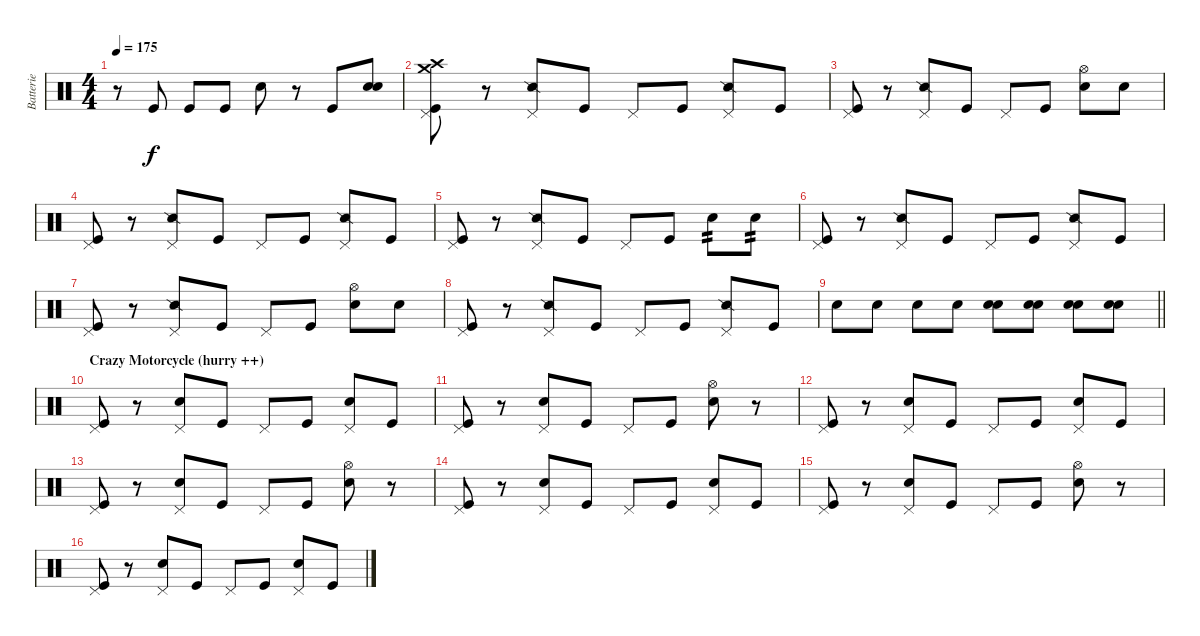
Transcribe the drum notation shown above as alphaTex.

\track ("Batterie" "Batterie") {instrument percussion}
\staff {score}
\articulation defaults
\ts (4 4)
\tempo 175
\clef neutral
\ks c
r.8{dy f} "Kick (hit)".8 "Kick (hit)".8 "Kick (hit)".8 "Snare (hit) 2".8 r.8 "Kick (hit)".8 ("Snare (hit) 2" "Electric Snare (hit)").8 |
("Kick (hit)" "Pedal Hi-Hat (hit)" "Crash high (hit)" "Crash medium (hit)").8 r.8 ("Snare (side stick) 2" "Pedal Hi-Hat (hit)").8 "Kick (hit)".8 "Pedal Hi-Hat (hit)".8 "Kick (hit)".8 ("Snare (side stick) 2" "Pedal Hi-Hat (hit)").8 "Kick (hit)".8 |
("Kick (hit)" "Pedal Hi-Hat (hit)").8 r.8 ("Snare (side stick) 2" "Pedal Hi-Hat (hit)").8 "Kick (hit)".8 "Pedal Hi-Hat (hit)".8 "Kick (hit)".8 ("Electric Snare (hit)" "Hi-Hat (open)").8 "Electric Snare (hit)".8 |
("Kick (hit)" "Pedal Hi-Hat (hit)").8 r.8 ("Snare (side stick) 2" "Pedal Hi-Hat (hit)").8 "Kick (hit)".8 "Pedal Hi-Hat (hit)".8 "Kick (hit)".8 ("Snare (side stick) 2" "Pedal Hi-Hat (hit)").8 "Kick (hit)".8 |
("Kick (hit)" "Pedal Hi-Hat (hit)").8 r.8 ("Snare (side stick) 2" "Pedal Hi-Hat (hit)").8 "Kick (hit)".8 "Pedal Hi-Hat (hit)".8 "Kick (hit)".8 "Electric Snare (hit)".8{tp 2} "Electric Snare (hit)".8{tp 2} |
("Kick (hit)" "Pedal Hi-Hat (hit)").8 r.8 ("Snare (side stick) 2" "Pedal Hi-Hat (hit)").8 "Kick (hit)".8 "Pedal Hi-Hat (hit)".8 "Kick (hit)".8 ("Snare (side stick) 2" "Pedal Hi-Hat (hit)").8 "Kick (hit)".8 |
("Kick (hit)" "Pedal Hi-Hat (hit)").8 r.8 ("Snare (side stick) 2" "Pedal Hi-Hat (hit)").8 "Kick (hit)".8 "Pedal Hi-Hat (hit)".8 "Kick (hit)".8 ("Electric Snare (hit)" "Hi-Hat (open)").8 "Electric Snare (hit)".8 |
("Kick (hit)" "Pedal Hi-Hat (hit)").8 r.8 ("Snare (side stick) 2" "Pedal Hi-Hat (hit)").8 "Kick (hit)".8 "Pedal Hi-Hat (hit)".8 "Kick (hit)".8 ("Snare (side stick) 2" "Pedal Hi-Hat (hit)").8 "Kick (hit)".8 |
\barLineRight lightlight "Electric Snare (hit)".8 "Electric Snare (hit)".8 "Electric Snare (hit)".8 "Electric Snare (hit)".8
("Electric Snare (hit)" "Snare (hit) 2").8 ("Electric Snare (hit)" "Snare (hit) 2").8 ("Electric Snare (hit)" "Snare (hit) 2").8 ("Electric Snare (hit)" "Snare (hit) 2").8 |
\section ("" "Crazy Motorcycle (hurry ++)")
("Kick (hit)" "Pedal Hi-Hat (hit)").8 r.8 ("Electric Snare (hit)" "Pedal Hi-Hat (hit)").8 "Kick (hit)".8 "Pedal Hi-Hat (hit)".8 "Kick (hit)".8 ("Electric Snare (hit)" "Pedal Hi-Hat (hit)").8 "Kick (hit)".8 |
("Kick (hit)" "Pedal Hi-Hat (hit)").8 r.8 ("Electric Snare (hit)" "Pedal Hi-Hat (hit)").8 "Kick (hit)".8 "Pedal Hi-Hat (hit)".8 "Kick (hit)".8 ("Electric Snare (hit)" "Hi-Hat (open)").8 r.8 |
("Kick (hit)" "Pedal Hi-Hat (hit)").8 r.8 ("Electric Snare (hit)" "Pedal Hi-Hat (hit)").8 "Kick (hit)".8 "Pedal Hi-Hat (hit)".8 "Kick (hit)".8 ("Electric Snare (hit)" "Pedal Hi-Hat (hit)").8 "Kick (hit)".8 |
("Kick (hit)" "Pedal Hi-Hat (hit)").8 r.8 ("Electric Snare (hit)" "Pedal Hi-Hat (hit)").8 "Kick (hit)".8 "Pedal Hi-Hat (hit)".8 "Kick (hit)".8 ("Electric Snare (hit)" "Hi-Hat (open)").8 r.8 |
("Kick (hit)" "Pedal Hi-Hat (hit)").8 r.8 ("Electric Snare (hit)" "Pedal Hi-Hat (hit)").8 "Kick (hit)".8 "Pedal Hi-Hat (hit)".8 "Kick (hit)".8 ("Electric Snare (hit)" "Pedal Hi-Hat (hit)").8 "Kick (hit)".8 |
("Kick (hit)" "Pedal Hi-Hat (hit)").8 r.8 ("Electric Snare (hit)" "Pedal Hi-Hat (hit)").8 "Kick (hit)".8 "Pedal Hi-Hat (hit)".8 "Kick (hit)".8 ("Electric Snare (hit)" "Hi-Hat (open)").8 r.8 |
("Kick (hit)" "Pedal Hi-Hat (hit)").8 r.8 ("Electric Snare (hit)" "Pedal Hi-Hat (hit)").8 "Kick (hit)".8 "Pedal Hi-Hat (hit)".8 "Kick (hit)".8 ("Electric Snare (hit)" "Pedal Hi-Hat (hit)").8 "Kick (hit)".8
